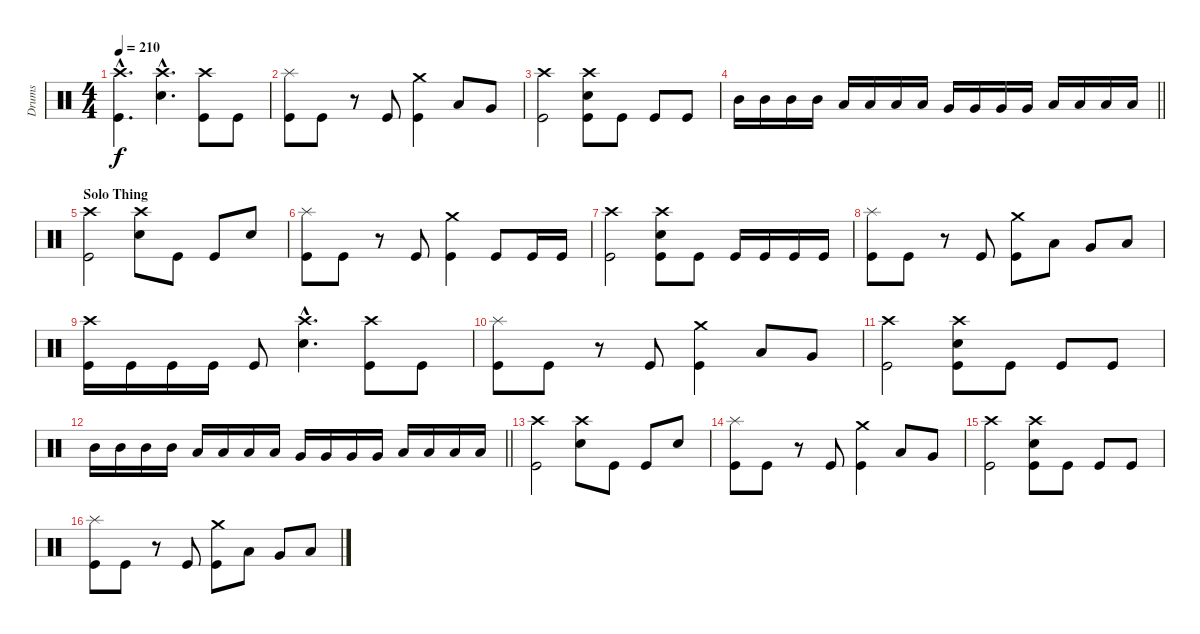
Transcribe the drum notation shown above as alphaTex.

\track ("Drums" "Drums") {instrument percussion}
\staff {score}
\articulation defaults
\ts (4 4)
\tempo 210
\clef neutral
\ks c
("Crash high (hit)"{hac} "Kick (hit)"{hac}).4{d dy f} ("Crash high (hit)"{hac} "Snare (hit) 2"{hac}).4{d} ("Crash high (hit)" "Kick (hit)").8 "Kick (hit)".8 |
("Splash (hit)" "Kick (hit)").8 "Kick (hit)".8 r.8 "Kick (hit)".8 ("Crash medium (hit)" "Kick (hit)").4 "Low Tom (hit)".8 "Very Low Tom (hit)".8 |
("Crash high (hit)" "Kick (hit)").2 ("Crash high (hit)" "Snare (hit) 2" "Kick (hit)").8 "Kick (hit)".8 "Kick (hit)".8 "Kick (hit)".8 |
\barLineRight lightlight "Mid Tom (hit)".16 "Mid Tom (hit)".16 "Mid Tom (hit)".16 "Mid Tom (hit)".16 "Low Tom (hit)".16 "Low Tom (hit)".16 "Low Tom (hit)".16 "Low Tom (hit)".16 "Very Low Tom (hit)".16 "Very Low Tom (hit)".16 "Very Low Tom (hit)".16 "Very Low Tom (hit)".16 "Low Floor Tom (hit)".16 "Low Floor Tom (hit)".16 "Low Floor Tom (hit)".16 "Low Floor Tom (hit)".16
|
\section ("" "Solo Thing")
("Crash high (hit)" "Kick (hit)").2 ("Crash high (hit)" "Snare (hit) 2").8 "Kick (hit)".8 "Kick (hit)".8 "Snare (hit) 2".8 |
("Splash (hit)" "Kick (hit)").8 "Kick (hit)".8 r.8 "Kick (hit)".8 ("Crash medium (hit)" "Kick (hit)").4 "Kick (hit)".8 "Kick (hit)".16 "Kick (hit)".16 |
("Crash high (hit)" "Kick (hit)").2 ("Crash high (hit)" "Snare (hit) 2" "Kick (hit)").8 "Kick (hit)".8 "Kick (hit)".16 "Kick (hit)".16 "Kick (hit)".16 "Kick (hit)".16 |
("Splash (hit)" "Kick (hit)").8 "Kick (hit)".8 r.8 "Kick (hit)".8 ("Crash medium (hit)" "Kick (hit)").8 "Low Tom (hit)".8 "Very Low Tom (hit)".8 "Low Floor Tom (hit)".8 |
("Crash high (hit)" "Kick (hit)").16 "Kick (hit)".16 "Kick (hit)".16 "Kick (hit)".16 "Kick (hit)".8 ("Crash high (hit)"{hac} "Snare (hit) 2"{hac}).4{d} ("Crash high (hit)" "Kick (hit)").8 "Kick (hit)".8 |
("Splash (hit)" "Kick (hit)").8 "Kick (hit)".8 r.8 "Kick (hit)".8 ("Crash medium (hit)" "Kick (hit)").4 "Low Tom (hit)".8 "Very Low Tom (hit)".8 |
("Crash high (hit)" "Kick (hit)").2 ("Crash high (hit)" "Snare (hit) 2" "Kick (hit)").8 "Kick (hit)".8 "Kick (hit)".8 "Kick (hit)".8 |
\barLineRight lightlight "Mid Tom (hit)".16 "Mid Tom (hit)".16 "Mid Tom (hit)".16 "Mid Tom (hit)".16 "Low Tom (hit)".16 "Low Tom (hit)".16 "Low Tom (hit)".16 "Low Tom (hit)".16 "Very Low Tom (hit)".16 "Very Low Tom (hit)".16 "Very Low Tom (hit)".16 "Very Low Tom (hit)".16 "Low Floor Tom (hit)".16 "Low Floor Tom (hit)".16 "Low Floor Tom (hit)".16 "Low Floor Tom (hit)".16
|
("Crash high (hit)" "Kick (hit)").2 ("Crash high (hit)" "Snare (hit) 2").8 "Kick (hit)".8 "Kick (hit)".8 "Snare (hit) 2".8 |
("Splash (hit)" "Kick (hit)").8 "Kick (hit)".8 r.8 "Kick (hit)".8 ("Crash medium (hit)" "Kick (hit)").4 "Low Tom (hit)".8 "Very Low Tom (hit)".8 |
("Crash high (hit)" "Kick (hit)").2 ("Crash high (hit)" "Snare (hit) 2" "Kick (hit)").8 "Kick (hit)".8 "Kick (hit)".8 "Kick (hit)".8 |
("Splash (hit)" "Kick (hit)").8 "Kick (hit)".8 r.8 "Kick (hit)".8 ("Crash medium (hit)" "Kick (hit)").8 "Low Tom (hit)".8 "Very Low Tom (hit)".8 "Low Floor Tom (hit)".8
